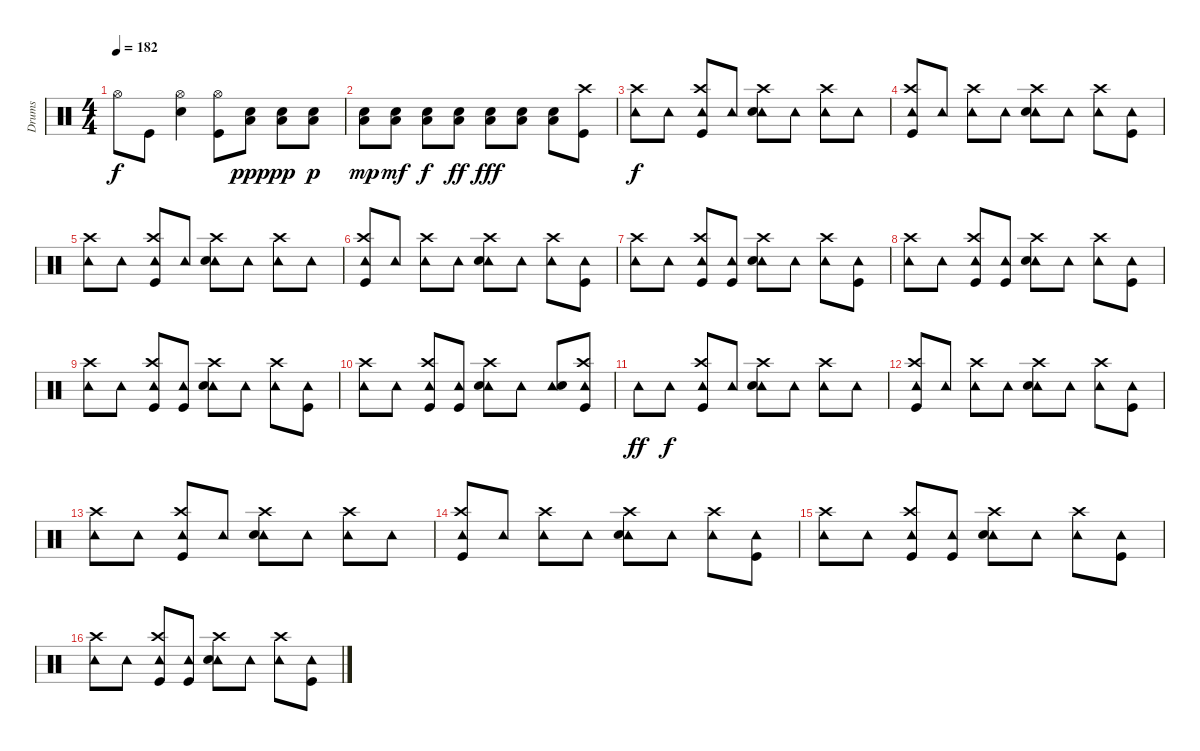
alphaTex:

\track ("Drums" "Drums") {instrument percussion}
\staff {score}
\articulation defaults
\ts (4 4)
\tempo 182
\clef neutral
\ks c "Hi-Hat (open)".8{dy f} "Kick (hit)".8
("Hi-Hat (open)" "Electric Snare (hit)").4 ("Hi-Hat (open)" "Kick (hit)").8 ("Low Floor Tom (hit)" "Electric Snare (hit)").8{dy ppp} ("Low Floor Tom (hit)" "Electric Snare (hit)").8{dy pp} ("Low Floor Tom (hit)" "Electric Snare (hit)").8{dy p} |
("Low Floor Tom (hit)" "Electric Snare (hit)").8{dy mp} ("Low Floor Tom (hit)" "Electric Snare (hit)").8{dy mf} ("Low Floor Tom (hit)" "Electric Snare (hit)").8{dy f} ("Low Floor Tom (hit)" "Electric Snare (hit)").8{dy ff} ("Low Floor Tom (hit)" "Electric Snare (hit)").8{dy fff} ("Low Floor Tom (hit)" "Electric Snare (hit)").8 ("Low Floor Tom (hit)" "Electric Snare (hit)").8 ("Crash high (hit)" "Kick (hit)").8 |
("Tambourine (hit)" "Crash high (hit)").8{dy f} "Tambourine (hit)".8 ("Tambourine (hit)" "Crash high (hit)" "Kick (hit)").8 "Tambourine (hit)".8 ("Tambourine (hit)" "Crash high (hit)" "Electric Snare (hit)").8 "Tambourine (hit)".8 ("Tambourine (hit)" "Crash high (hit)").8 "Tambourine (hit)".8 |
("Tambourine (hit)" "Kick (hit)" "Crash high (hit)").8 "Tambourine (hit)".8 ("Tambourine (hit)" "Crash high (hit)").8 "Tambourine (hit)".8 ("Tambourine (hit)" "Crash high (hit)" "Electric Snare (hit)").8 "Tambourine (hit)".8 ("Tambourine (hit)" "Crash high (hit)").8 ("Tambourine (hit)" "Kick (hit)").8 |
("Tambourine (hit)" "Crash high (hit)").8 "Tambourine (hit)".8 ("Tambourine (hit)" "Crash high (hit)" "Kick (hit)").8 "Tambourine (hit)".8 ("Tambourine (hit)" "Crash high (hit)" "Electric Snare (hit)").8 "Tambourine (hit)".8 ("Tambourine (hit)" "Crash high (hit)").8 "Tambourine (hit)".8 |
("Tambourine (hit)" "Kick (hit)" "Crash high (hit)").8 "Tambourine (hit)".8 ("Tambourine (hit)" "Crash high (hit)").8 "Tambourine (hit)".8 ("Tambourine (hit)" "Crash high (hit)" "Electric Snare (hit)").8 "Tambourine (hit)".8 ("Tambourine (hit)" "Crash high (hit)").8 ("Tambourine (hit)" "Kick (hit)").8 |
("Tambourine (hit)" "Crash high (hit)").8 "Tambourine (hit)".8 ("Tambourine (hit)" "Crash high (hit)" "Kick (hit)").8 ("Tambourine (hit)" "Kick (hit)").8 ("Tambourine (hit)" "Crash high (hit)" "Electric Snare (hit)").8 "Tambourine (hit)".8 ("Tambourine (hit)" "Crash high (hit)").8 ("Tambourine (hit)" "Kick (hit)").8 |
("Tambourine (hit)" "Crash high (hit)").8 "Tambourine (hit)".8 ("Tambourine (hit)" "Crash high (hit)" "Kick (hit)").8 ("Tambourine (hit)" "Kick (hit)").8 ("Tambourine (hit)" "Crash high (hit)" "Electric Snare (hit)").8 "Tambourine (hit)".8 ("Tambourine (hit)" "Crash high (hit)").8 ("Tambourine (hit)" "Kick (hit)").8 |
("Tambourine (hit)" "Crash high (hit)").8 "Tambourine (hit)".8 ("Tambourine (hit)" "Crash high (hit)" "Kick (hit)").8 ("Tambourine (hit)" "Kick (hit)").8 ("Tambourine (hit)" "Crash high (hit)" "Electric Snare (hit)").8 "Tambourine (hit)".8 ("Tambourine (hit)" "Crash high (hit)").8 ("Tambourine (hit)" "Kick (hit)").8 |
("Tambourine (hit)" "Crash high (hit)").8 "Tambourine (hit)".8 ("Tambourine (hit)" "Crash high (hit)" "Kick (hit)").8 ("Tambourine (hit)" "Kick (hit)").8 ("Tambourine (hit)" "Crash high (hit)" "Electric Snare (hit)").8 "Tambourine (hit)".8 ("Tambourine (hit)" "Electric Snare (hit)").8 ("Tambourine (hit)" "Crash high (hit)" "Kick (hit)").8 |
"Tambourine (hit)".8{dy ff} "Tambourine (hit)".8{dy f} ("Tambourine (hit)" "Crash high (hit)" "Kick (hit)").8 "Tambourine (hit)".8 ("Tambourine (hit)" "Crash high (hit)" "Electric Snare (hit)").8 "Tambourine (hit)".8 ("Tambourine (hit)" "Crash high (hit)").8 "Tambourine (hit)".8 |
("Tambourine (hit)" "Kick (hit)" "Crash high (hit)").8 "Tambourine (hit)".8 ("Tambourine (hit)" "Crash high (hit)").8 "Tambourine (hit)".8 ("Tambourine (hit)" "Crash high (hit)" "Electric Snare (hit)").8 "Tambourine (hit)".8 ("Tambourine (hit)" "Crash high (hit)").8 ("Tambourine (hit)" "Kick (hit)").8 |
("Tambourine (hit)" "Crash high (hit)").8 "Tambourine (hit)".8 ("Tambourine (hit)" "Crash high (hit)" "Kick (hit)").8 "Tambourine (hit)".8 ("Tambourine (hit)" "Crash high (hit)" "Electric Snare (hit)").8 "Tambourine (hit)".8 ("Tambourine (hit)" "Crash high (hit)").8 "Tambourine (hit)".8 |
("Tambourine (hit)" "Kick (hit)" "Crash high (hit)").8 "Tambourine (hit)".8 ("Tambourine (hit)" "Crash high (hit)").8 "Tambourine (hit)".8 ("Tambourine (hit)" "Crash high (hit)" "Electric Snare (hit)").8 "Tambourine (hit)".8 ("Tambourine (hit)" "Crash high (hit)").8 ("Tambourine (hit)" "Kick (hit)").8 |
("Tambourine (hit)" "Crash high (hit)").8 "Tambourine (hit)".8 ("Tambourine (hit)" "Crash high (hit)" "Kick (hit)").8 ("Tambourine (hit)" "Kick (hit)").8 ("Tambourine (hit)" "Crash high (hit)" "Electric Snare (hit)").8 "Tambourine (hit)".8 ("Tambourine (hit)" "Crash high (hit)").8 ("Tambourine (hit)" "Kick (hit)").8 |
("Tambourine (hit)" "Crash high (hit)").8 "Tambourine (hit)".8 ("Tambourine (hit)" "Crash high (hit)" "Kick (hit)").8 ("Tambourine (hit)" "Kick (hit)").8 ("Tambourine (hit)" "Crash high (hit)" "Electric Snare (hit)").8 "Tambourine (hit)".8 ("Tambourine (hit)" "Crash high (hit)").8 ("Tambourine (hit)" "Kick (hit)").8
